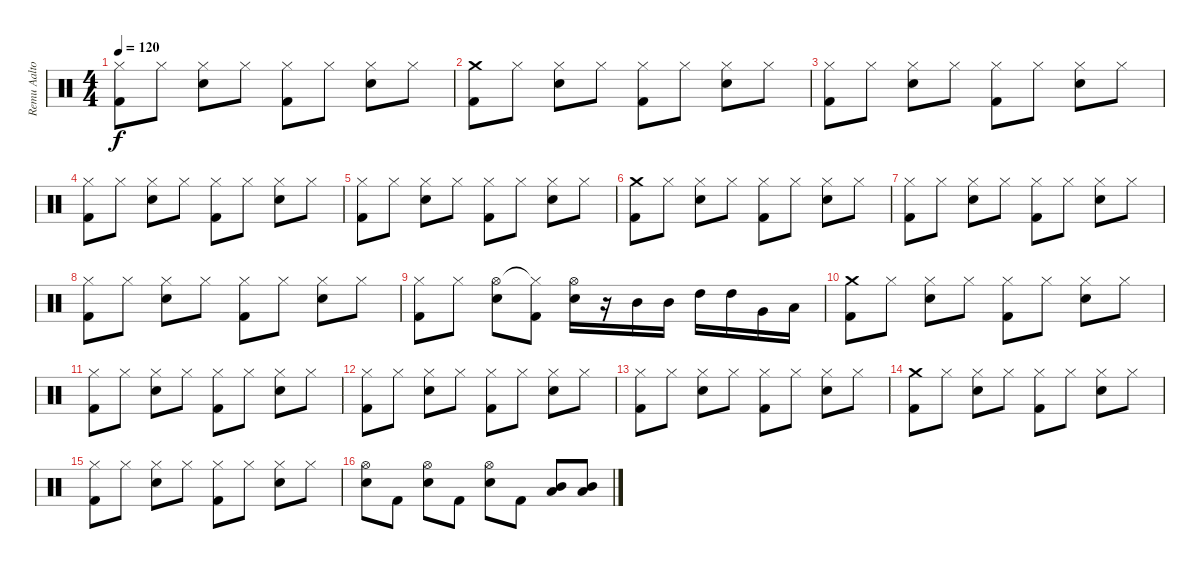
\track ("Remu Aaltonen" "Remu Aalto") {instrument percussion}
\staff {score}
\articulation defaults
\ts (4 4)
\tempo 120
\clef neutral
\ks c
("Hi-Hat (closed)" "Kick (hit) 2").8{dy f} "Hi-Hat (closed)".8 ("Hi-Hat (closed)" "Snare (hit) 2").8 "Hi-Hat (closed)".8 ("Hi-Hat (closed)" "Kick (hit) 2").8 "Hi-Hat (closed)".8 ("Hi-Hat (closed)" "Snare (hit) 2").8 "Hi-Hat (closed)".8 |
("Crash medium (hit)" "Kick (hit) 2").8 "Hi-Hat (closed)".8 ("Hi-Hat (closed)" "Snare (hit) 2").8 "Hi-Hat (closed)".8 ("Hi-Hat (closed)" "Kick (hit) 2").8 "Hi-Hat (closed)".8 ("Hi-Hat (closed)" "Snare (hit) 2").8 "Hi-Hat (closed)".8 |
("Hi-Hat (closed)" "Kick (hit) 2").8 "Hi-Hat (closed)".8 ("Hi-Hat (closed)" "Snare (hit) 2").8 "Hi-Hat (closed)".8 ("Hi-Hat (closed)" "Kick (hit) 2").8 "Hi-Hat (closed)".8 ("Hi-Hat (closed)" "Snare (hit) 2").8 "Hi-Hat (closed)".8 |
("Hi-Hat (closed)" "Kick (hit) 2").8 "Hi-Hat (closed)".8 ("Hi-Hat (closed)" "Snare (hit) 2").8 "Hi-Hat (closed)".8 ("Hi-Hat (closed)" "Kick (hit) 2").8 "Hi-Hat (closed)".8 ("Hi-Hat (closed)" "Snare (hit) 2").8 "Hi-Hat (closed)".8 |
("Hi-Hat (closed)" "Kick (hit) 2").8 "Hi-Hat (closed)".8 ("Hi-Hat (closed)" "Snare (hit) 2").8 "Hi-Hat (closed)".8 ("Hi-Hat (closed)" "Kick (hit) 2").8 "Hi-Hat (closed)".8 ("Hi-Hat (closed)" "Snare (hit) 2").8 "Hi-Hat (closed)".8 |
("Crash medium (hit)" "Kick (hit) 2").8 "Hi-Hat (closed)".8 ("Hi-Hat (closed)" "Snare (hit) 2").8 "Hi-Hat (closed)".8 ("Hi-Hat (closed)" "Kick (hit) 2").8 "Hi-Hat (closed)".8 ("Hi-Hat (closed)" "Snare (hit) 2").8 "Hi-Hat (closed)".8 |
("Hi-Hat (closed)" "Kick (hit) 2").8 "Hi-Hat (closed)".8 ("Hi-Hat (closed)" "Snare (hit) 2").8 "Hi-Hat (closed)".8 ("Hi-Hat (closed)" "Kick (hit) 2").8 "Hi-Hat (closed)".8 ("Hi-Hat (closed)" "Snare (hit) 2").8 "Hi-Hat (closed)".8 |
("Hi-Hat (closed)" "Kick (hit) 2").8 "Hi-Hat (closed)".8 ("Hi-Hat (closed)" "Snare (hit) 2").8 "Hi-Hat (closed)".8 ("Hi-Hat (closed)" "Kick (hit) 2").8 "Hi-Hat (closed)".8 ("Hi-Hat (closed)" "Snare (hit) 2").8 "Hi-Hat (closed)".8 |
("Hi-Hat (closed)" "Kick (hit) 2").8 "Hi-Hat (closed)".8 ("Hi-Hat (open)" "Snare (hit) 2").8 ("Hi-Hat (closed)"{t} "Kick (hit) 2").8 ("Hi-Hat (open)" "Snare (hit) 2").16 r.16 "Mid Tom (hit)".16 "Mid Tom (hit)".16 "High Tom (hit)".16 "High Tom (hit)".16 "Very Low Tom (hit)".16 "Low Floor Tom (hit)".16 |
("Crash medium (hit)" "Kick (hit) 2").8 "Hi-Hat (closed)".8 ("Hi-Hat (closed)" "Snare (hit) 2").8 "Hi-Hat (closed)".8 ("Hi-Hat (closed)" "Kick (hit) 2").8 "Hi-Hat (closed)".8 ("Hi-Hat (closed)" "Snare (hit) 2").8 "Hi-Hat (closed)".8 |
("Hi-Hat (closed)" "Kick (hit) 2").8 "Hi-Hat (closed)".8 ("Hi-Hat (closed)" "Snare (hit) 2").8 "Hi-Hat (closed)".8 ("Hi-Hat (closed)" "Kick (hit) 2").8 "Hi-Hat (closed)".8 ("Hi-Hat (closed)" "Snare (hit) 2").8 "Hi-Hat (closed)".8 |
("Hi-Hat (closed)" "Kick (hit) 2").8 "Hi-Hat (closed)".8 ("Hi-Hat (closed)" "Snare (hit) 2").8 "Hi-Hat (closed)".8 ("Hi-Hat (closed)" "Kick (hit) 2").8 "Hi-Hat (closed)".8 ("Hi-Hat (closed)" "Snare (hit) 2").8 "Hi-Hat (closed)".8 |
("Hi-Hat (closed)" "Kick (hit) 2").8 "Hi-Hat (closed)".8 ("Hi-Hat (closed)" "Snare (hit) 2").8 "Hi-Hat (closed)".8 ("Hi-Hat (closed)" "Kick (hit) 2").8 "Hi-Hat (closed)".8 ("Hi-Hat (closed)" "Snare (hit) 2").8 "Hi-Hat (closed)".8 |
("Crash medium (hit)" "Kick (hit) 2").8 "Hi-Hat (closed)".8 ("Hi-Hat (closed)" "Snare (hit) 2").8 "Hi-Hat (closed)".8 ("Hi-Hat (closed)" "Kick (hit) 2").8 "Hi-Hat (closed)".8 ("Hi-Hat (closed)" "Snare (hit) 2").8 "Hi-Hat (closed)".8 |
("Hi-Hat (closed)" "Kick (hit) 2").8 "Hi-Hat (closed)".8 ("Hi-Hat (closed)" "Snare (hit) 2").8 "Hi-Hat (closed)".8 ("Hi-Hat (closed)" "Kick (hit) 2").8 "Hi-Hat (closed)".8 ("Hi-Hat (closed)" "Snare (hit) 2").8 "Hi-Hat (closed)".8 |
("Hi-Hat (open)" "Snare (hit) 2").8 "Kick (hit) 2".8 ("Hi-Hat (open)" "Snare (hit) 2").8 "Kick (hit) 2".8 ("Hi-Hat (open)" "Snare (hit) 2").8 "Kick (hit) 2".8 ("Low Floor Tom (hit)" "Mid Tom (hit)").8 ("Low Floor Tom (hit)" "Mid Tom (hit)").8
